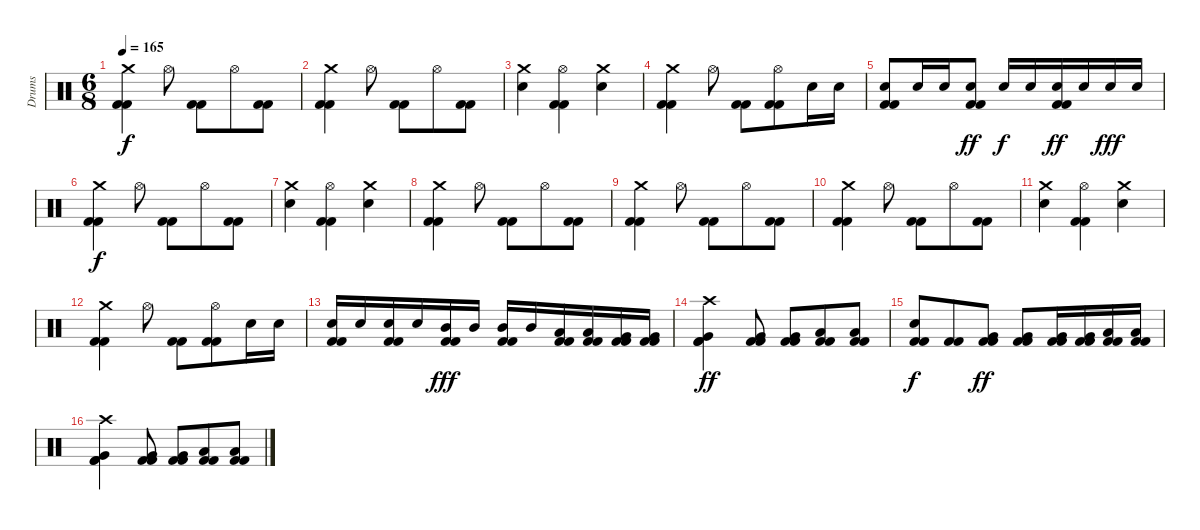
\track ("Drums" "Drums") {instrument percussion}
\staff {score}
\articulation defaults
\ts (6 8)
\tempo 165
\clef neutral
\ks c
("Crash medium (hit)" "Kick (hit) 2" "Kick (hit) 2").4{dy f} "Hi-Hat (open)".8 ("Kick (hit) 2" "Kick (hit) 2").8 "Hi-Hat (open)".8 ("Kick (hit) 2" "Kick (hit) 2").8 |
("Crash medium (hit)" "Kick (hit) 2" "Kick (hit) 2").4 "Hi-Hat (open)".8 ("Kick (hit) 2" "Kick (hit) 2").8 "Hi-Hat (open)".8 ("Kick (hit) 2" "Kick (hit) 2").8 |
("Crash medium (hit)" "Electric Snare (hit)").4 ("Hi-Hat (open)" "Kick (hit) 2" "Kick (hit) 2").4 ("Crash medium (hit)" "Electric Snare (hit)").4 |
("Crash medium (hit)" "Kick (hit) 2" "Kick (hit) 2").4 "Hi-Hat (open)".8 ("Kick (hit) 2" "Kick (hit) 2").8 ("Hi-Hat (open)" "Kick (hit) 2" "Kick (hit) 2").8 "Electric Snare (hit)".16 "Electric Snare (hit)".16 |
("Electric Snare (hit)" "Kick (hit) 2" "Kick (hit) 2").8 "Electric Snare (hit)".16 "Electric Snare (hit)".16 ("Electric Snare (hit)" "Kick (hit) 2" "Kick (hit) 2").8{dy ff} "Electric Snare (hit)".16{dy f} "Electric Snare (hit)".16 ("Electric Snare (hit)" "Kick (hit) 2" "Kick (hit) 2").16{dy ff} "Electric Snare (hit)".16 "Electric Snare (hit)".16{dy fff} "Electric Snare (hit)".16 |
("Crash medium (hit)" "Kick (hit) 2" "Kick (hit) 2").4{dy f} "Hi-Hat (open)".8 ("Kick (hit) 2" "Kick (hit) 2").8 "Hi-Hat (open)".8 ("Kick (hit) 2" "Kick (hit) 2").8 |
("Crash medium (hit)" "Electric Snare (hit)").4 ("Hi-Hat (open)" "Kick (hit) 2" "Kick (hit) 2").4 ("Crash medium (hit)" "Electric Snare (hit)").4 |
("Crash medium (hit)" "Kick (hit) 2" "Kick (hit) 2").4 "Hi-Hat (open)".8 ("Kick (hit) 2" "Kick (hit) 2").8 "Hi-Hat (open)".8 ("Kick (hit) 2" "Kick (hit) 2").8 |
("Crash medium (hit)" "Kick (hit) 2" "Kick (hit) 2").4 "Hi-Hat (open)".8 ("Kick (hit) 2" "Kick (hit) 2").8 "Hi-Hat (open)".8 ("Kick (hit) 2" "Kick (hit) 2").8 |
("Crash medium (hit)" "Kick (hit) 2" "Kick (hit) 2").4 "Hi-Hat (open)".8 ("Kick (hit) 2" "Kick (hit) 2").8 "Hi-Hat (open)".8 ("Kick (hit) 2" "Kick (hit) 2").8 |
("Crash medium (hit)" "Electric Snare (hit)").4 ("Hi-Hat (open)" "Kick (hit) 2" "Kick (hit) 2").4 ("Crash medium (hit)" "Electric Snare (hit)").4 |
("Crash medium (hit)" "Kick (hit) 2" "Kick (hit) 2").4 "Hi-Hat (open)".8 ("Kick (hit) 2" "Kick (hit) 2").8 ("Hi-Hat (open)" "Kick (hit) 2" "Kick (hit) 2").8 "Electric Snare (hit)".16 "Electric Snare (hit)".16 |
("Electric Snare (hit)" "Kick (hit) 2" "Kick (hit) 2").16 "Electric Snare (hit)".16 ("Electric Snare (hit)" "Kick (hit) 2" "Kick (hit) 2").16 "Electric Snare (hit)".16 ("Mid Tom (hit)" "Kick (hit) 2" "Kick (hit) 2").16{dy fff} "Mid Tom (hit)".16 ("Mid Tom (hit)" "Kick (hit) 2" "Kick (hit) 2").16 "Mid Tom (hit)".16 ("Low Tom (hit)" "Kick (hit) 2" "Kick (hit) 2").16 ("Low Tom (hit)" "Kick (hit) 2" "Kick (hit) 2").16 ("Very Low Tom (hit)" "Kick (hit) 2" "Kick (hit) 2").16 ("Very Low Tom (hit)" "Kick (hit) 2" "Kick (hit) 2").16 |
("Crash high (hit)" "Very Low Tom (hit)" "Kick (hit) 2" "Kick (hit) 2").4{dy ff} ("Very Low Tom (hit)" "Kick (hit) 2" "Kick (hit) 2").8 ("Very Low Tom (hit)" "Kick (hit) 2" "Kick (hit) 2").8 ("Low Floor Tom (hit)" "Kick (hit) 2" "Kick (hit) 2").8 ("Low Floor Tom (hit)" "Kick (hit) 2" "Kick (hit) 2").8 |
("Electric Snare (hit)" "Kick (hit) 2" "Kick (hit) 2").8{dy f} ("Kick (hit) 2" "Kick (hit) 2").8 ("Very Low Tom (hit)" "Kick (hit) 2" "Kick (hit) 2").8{dy ff} ("Very Low Tom (hit)" "Kick (hit) 2" "Kick (hit) 2").8 ("Very Low Tom (hit)" "Kick (hit) 2" "Kick (hit) 2").16 ("Very Low Tom (hit)" "Kick (hit) 2" "Kick (hit) 2").16 ("Low Floor Tom (hit)" "Kick (hit) 2" "Kick (hit) 2").16 ("Low Floor Tom (hit)" "Kick (hit) 2" "Kick (hit) 2").16 |
("Crash high (hit)" "Very Low Tom (hit)" "Kick (hit) 2" "Kick (hit) 2").4 ("Very Low Tom (hit)" "Kick (hit) 2" "Kick (hit) 2").8 ("Very Low Tom (hit)" "Kick (hit) 2" "Kick (hit) 2").8 ("Low Floor Tom (hit)" "Kick (hit) 2" "Kick (hit) 2").8 ("Low Floor Tom (hit)" "Kick (hit) 2" "Kick (hit) 2").8
